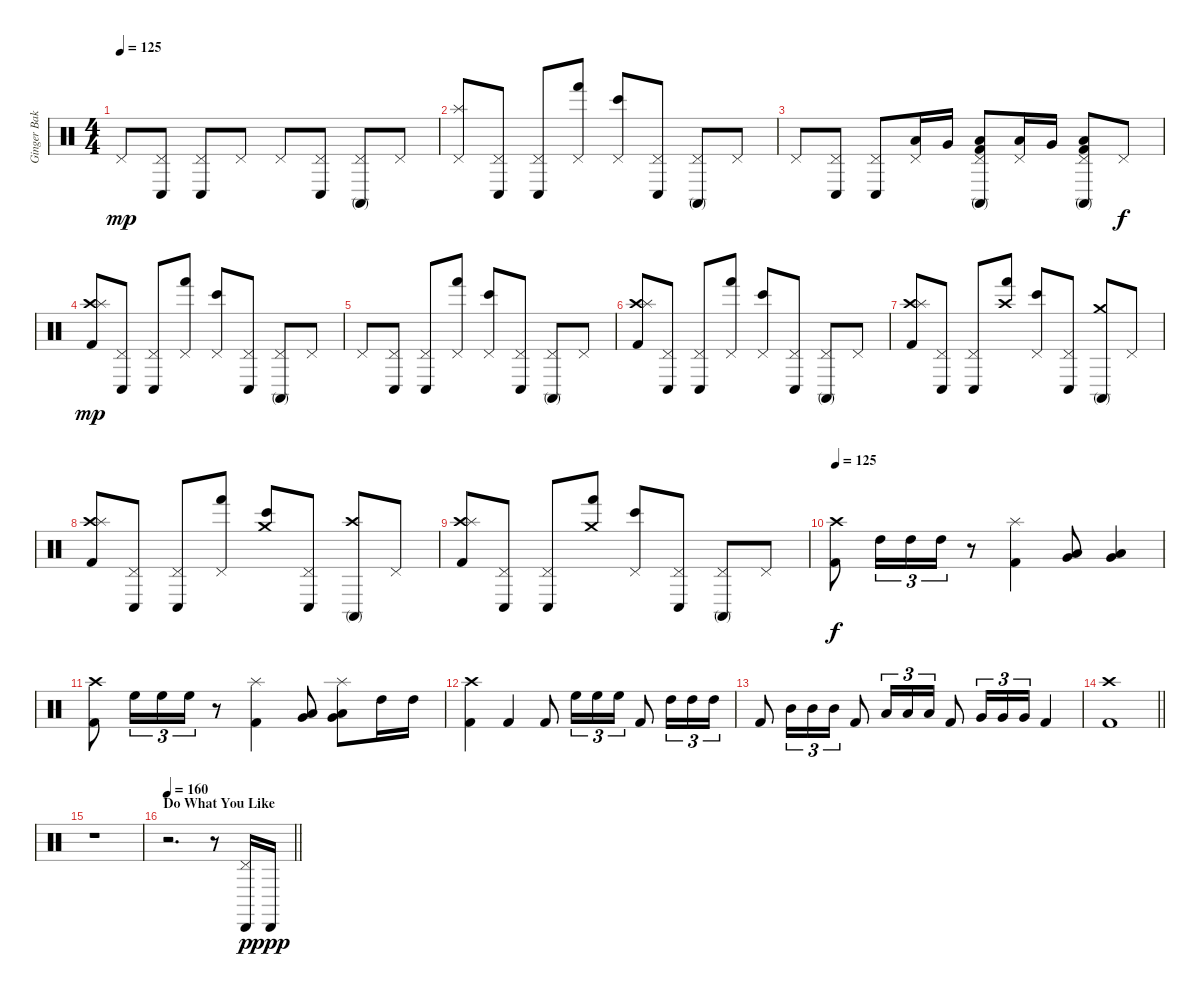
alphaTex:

\track ("Ginger Baker (Drums)" "Ginger Bak") {instrument percussion}
\staff {score}
\articulation defaults
\ts (4 4)
\tempo 125
\clef neutral
\ks c "Pedal Hi-Hat (hit)".8{dy mp}
("Pedal Hi-Hat (hit)" "Conga low (hit)").8 ("Pedal Hi-Hat (hit)" "Conga low (hit)").8 "Pedal Hi-Hat (hit)".8 "Pedal Hi-Hat (hit)".8 ("Pedal Hi-Hat (hit)" "Conga low (hit)").8 ("Pedal Hi-Hat (hit)" "Conga high (mute)").8 "Pedal Hi-Hat (hit)".8 |
("Pedal Hi-Hat (hit)" "Splash (hit)").8 ("Pedal Hi-Hat (hit)" "Conga low (hit)").8 ("Pedal Hi-Hat (hit)" "Conga low (hit)").8 ("Pedal Hi-Hat (hit)" "Hand (hit)").8 ("Pedal Hi-Hat (hit)" "Bongo High (hit)").8 ("Pedal Hi-Hat (hit)" "Conga low (hit)").8 ("Pedal Hi-Hat (hit)" "Conga high (mute)").8 "Pedal Hi-Hat (hit)".8 |
"Pedal Hi-Hat (hit)".8 ("Pedal Hi-Hat (hit)" "Conga low (hit)").8 ("Pedal Hi-Hat (hit)" "Conga low (hit)").8 ("Pedal Hi-Hat (hit)" "Low Tom (hit)").16 "Very Low Tom (hit)".16 ("Pedal Hi-Hat (hit)" "Conga high (mute)" "Low Floor Tom (hit)" "Kick (hit) 2").8 ("Pedal Hi-Hat (hit)" "Low Tom (hit)").16 "Very Low Tom (hit)".16 ("Pedal Hi-Hat (hit)" "Conga high (mute)" "Low Floor Tom (hit)" "Kick (hit) 2").8 "Pedal Hi-Hat (hit)".8{dy f} |
("Crash high (hit)" "Splash (hit)" "Kick (hit) 2").8{dy mp} ("Pedal Hi-Hat (hit)" "Conga low (hit)").8 ("Pedal Hi-Hat (hit)" "Conga low (hit)").8 ("Pedal Hi-Hat (hit)" "Hand (hit)").8 ("Pedal Hi-Hat (hit)" "Bongo High (hit)").8 ("Pedal Hi-Hat (hit)" "Conga low (hit)").8 ("Pedal Hi-Hat (hit)" "Conga high (mute)").8 "Pedal Hi-Hat (hit)".8 |
"Pedal Hi-Hat (hit)".8 ("Pedal Hi-Hat (hit)" "Conga low (hit)").8 ("Pedal Hi-Hat (hit)" "Conga low (hit)").8 ("Pedal Hi-Hat (hit)" "Hand (hit)").8 ("Pedal Hi-Hat (hit)" "Bongo High (hit)").8 ("Pedal Hi-Hat (hit)" "Conga low (hit)").8 ("Pedal Hi-Hat (hit)" "Conga high (mute)").8 "Pedal Hi-Hat (hit)".8 |
("Crash high (hit)" "Splash (hit)" "Kick (hit) 2").8 ("Pedal Hi-Hat (hit)" "Conga low (hit)").8 ("Pedal Hi-Hat (hit)" "Conga low (hit)").8 ("Pedal Hi-Hat (hit)" "Hand (hit)").8 ("Pedal Hi-Hat (hit)" "Bongo High (hit)").8 ("Pedal Hi-Hat (hit)" "Conga low (hit)").8 ("Pedal Hi-Hat (hit)" "Conga high (mute)").8 "Pedal Hi-Hat (hit)".8 |
("Crash high (hit)" "Splash (hit)" "Kick (hit) 2").8 ("Pedal Hi-Hat (hit)" "Conga low (hit)").8 ("Pedal Hi-Hat (hit)" "Conga low (hit)").8 ("Crash high (hit)" "Hand (hit)").8 ("Pedal Hi-Hat (hit)" "Bongo High (hit)").8 ("Pedal Hi-Hat (hit)" "Conga low (hit)").8 ("Crash medium (hit)" "Conga high (mute)").8 "Pedal Hi-Hat (hit)".8 |
("Crash high (hit)" "Splash (hit)" "Kick (hit) 2").8 ("Pedal Hi-Hat (hit)" "Conga low (hit)").8 ("Pedal Hi-Hat (hit)" "Conga low (hit)").8 ("Pedal Hi-Hat (hit)" "Hand (hit)").8 ("Crash medium (hit)" "Bongo High (hit)").8 ("Pedal Hi-Hat (hit)" "Conga low (hit)").8 ("Crash high (hit)" "Conga high (mute)").8 "Pedal Hi-Hat (hit)".8 |
("Crash high (hit)" "Splash (hit)" "Kick (hit) 2").8 ("Pedal Hi-Hat (hit)" "Conga low (hit)").8 ("Pedal Hi-Hat (hit)" "Conga low (hit)").8 ("Crash medium (hit)" "Hand (hit)").8 ("Pedal Hi-Hat (hit)" "Bongo High (hit)").8 ("Pedal Hi-Hat (hit)" "Conga low (hit)").8 ("Pedal Hi-Hat (hit)" "Conga high (mute)").8 "Pedal Hi-Hat (hit)".8 |
\tempo 125
("Crash high (hit)" "Kick (hit) 2").8{dy f} "High Tom (hit)".16{tu (3 2)} "High Tom (hit)".16{tu (3 2)} "High Tom (hit)".16{tu (3 2)} r.8 ("Splash (hit)" "Kick (hit) 2").4 ("Low Tom (hit)" "Very Low Tom (hit)").8 ("Low Tom (hit)" "Very Low Tom (hit)").4 |
("Crash high (hit)" "Kick (hit) 2").8 "High Floor Tom (hit)".16{tu (3 2)} "High Floor Tom (hit)".16{tu (3 2)} "High Floor Tom (hit)".16{tu (3 2)} r.8 ("Splash (hit)" "Kick (hit) 2").4 ("Low Tom (hit)" "Very Low Tom (hit)").8 ("Splash (hit)" "Low Tom (hit)" "Very Low Tom (hit)").8 "High Tom (hit)".16 "High Tom (hit)".16 |
("Crash high (hit)" "Kick (hit) 2").4 "Kick (hit) 2".4 "Kick (hit) 2".8 "High Floor Tom (hit)".16{tu (3 2)} "High Floor Tom (hit)".16{tu (3 2)} "High Floor Tom (hit)".16{tu (3 2)} "Kick (hit) 2".8 "High Tom (hit)".16{tu (3 2)} "High Tom (hit)".16{tu (3 2)} "High Tom (hit)".16{tu (3 2)} |
"Kick (hit) 2".8 "Mid Tom (hit)".16{tu (3 2)} "Mid Tom (hit)".16{tu (3 2)} "Mid Tom (hit)".16{tu (3 2)} "Kick (hit) 2".8 "Low Tom (hit)".16{tu (3 2)} "Low Tom (hit)".16{tu (3 2)} "Low Tom (hit)".16{tu (3 2)} "Kick (hit) 2".8 "Very Low Tom (hit)".16{tu (3 2)} "Very Low Tom (hit)".16{tu (3 2)} "Very Low Tom (hit)".16{tu (3 2)} "Kick (hit) 2".4 |
\barLineRight lightlight
("Crash high (hit)" "Kick (hit) 2").1 |
r.1 |
\section ("" "Do What You Like")
\tempo 160
\barLineRight lightlight
r.2{d} r.8 ("Pedal Hi-Hat (hit)" "Cabasa (hit)").16{dy p} "Cabasa (hit)".16{dy ppp}
